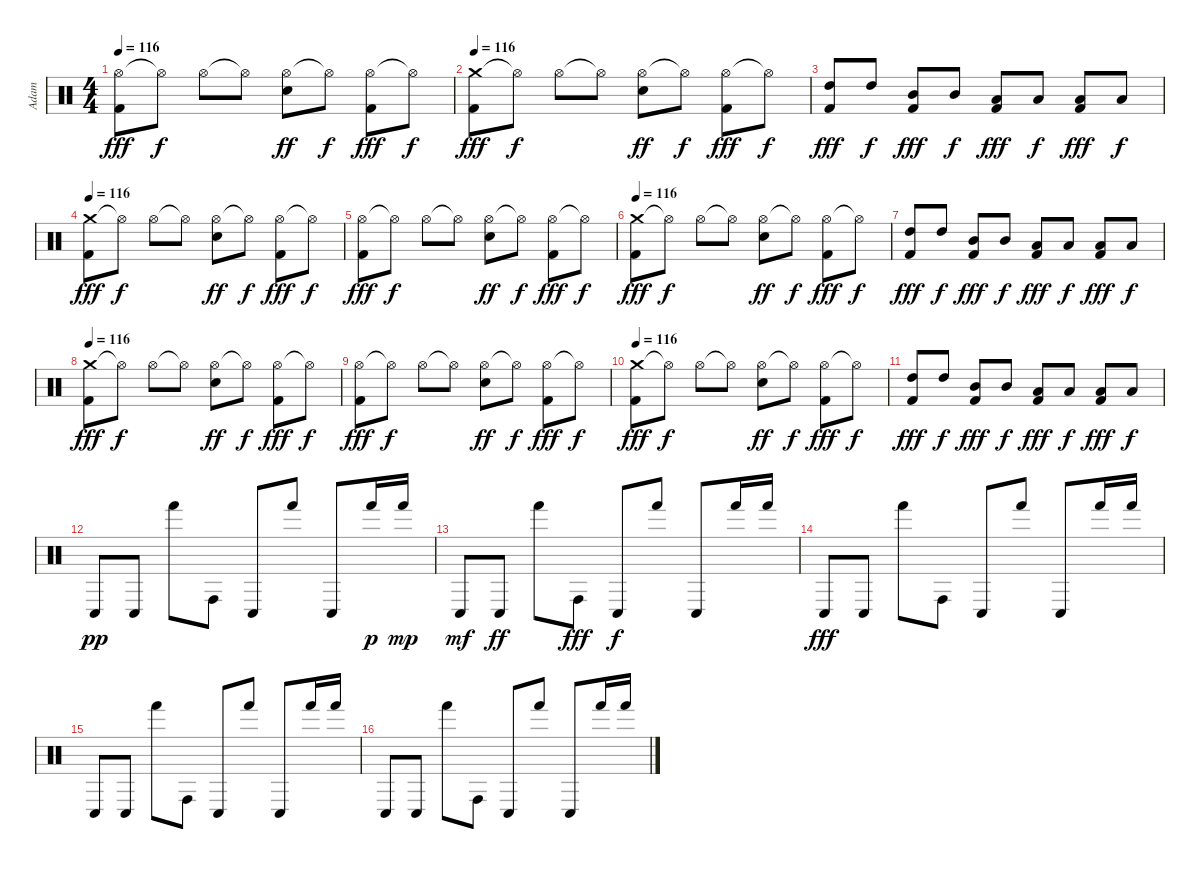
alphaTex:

\track ("Adam" "Adam") {instrument percussion}
\staff {score}
\articulation defaults
\ts (4 4)
\tempo 116
\clef neutral
\ks c
("Hi-Hat (open)" "Kick (hit) 2").8{dy fff} "Hi-Hat (open)"{t}.8{dy f} "Hi-Hat (open)".8 "Hi-Hat (open)"{t}.8 ("Hi-Hat (open)" "Electric Snare (hit)").8{dy ff} "Hi-Hat (open)"{t}.8{dy f} ("Hi-Hat (open)" "Kick (hit) 2").8{dy fff} "Hi-Hat (open)"{t}.8{dy f} |
\tempo 116
("Crash medium (hit)" "Kick (hit) 2").8{dy fff} "Hi-Hat (open)"{t}.8{dy f} "Hi-Hat (open)".8 "Hi-Hat (open)"{t}.8 ("Hi-Hat (open)" "Electric Snare (hit)").8{dy ff} "Hi-Hat (open)"{t}.8{dy f} ("Hi-Hat (open)" "Kick (hit) 2").8{dy fff} "Hi-Hat (open)"{t}.8{dy f} |
("High Tom (hit)" "Kick (hit) 2").8{dy fff} "High Tom (hit)".8{dy f} ("Mid Tom (hit)" "Kick (hit) 2").8{dy fff} "Mid Tom (hit)".8{dy f} ("Low Tom (hit)" "Kick (hit) 2").8{dy fff} "Low Tom (hit)".8{dy f} ("Low Floor Tom (hit)" "Kick (hit) 2").8{dy fff} "Low Floor Tom (hit)".8{dy f} |
\tempo 116
("Crash medium (hit)" "Kick (hit) 2").8{dy fff} "Hi-Hat (open)"{t}.8{dy f} "Hi-Hat (open)".8 "Hi-Hat (open)"{t}.8 ("Hi-Hat (open)" "Electric Snare (hit)").8{dy ff} "Hi-Hat (open)"{t}.8{dy f} ("Hi-Hat (open)" "Kick (hit) 2").8{dy fff} "Hi-Hat (open)"{t}.8{dy f} |
("Hi-Hat (open)" "Kick (hit) 2").8{dy fff} "Hi-Hat (open)"{t}.8{dy f} "Hi-Hat (open)".8 "Hi-Hat (open)"{t}.8 ("Hi-Hat (open)" "Electric Snare (hit)").8{dy ff} "Hi-Hat (open)"{t}.8{dy f} ("Hi-Hat (open)" "Kick (hit) 2").8{dy fff} "Hi-Hat (open)"{t}.8{dy f} |
\tempo 116
("Crash medium (hit)" "Kick (hit) 2").8{dy fff} "Hi-Hat (open)"{t}.8{dy f} "Hi-Hat (open)".8 "Hi-Hat (open)"{t}.8 ("Hi-Hat (open)" "Electric Snare (hit)").8{dy ff} "Hi-Hat (open)"{t}.8{dy f} ("Hi-Hat (open)" "Kick (hit) 2").8{dy fff} "Hi-Hat (open)"{t}.8{dy f} |
("High Tom (hit)" "Kick (hit) 2").8{dy fff} "High Tom (hit)".8{dy f} ("Mid Tom (hit)" "Kick (hit) 2").8{dy fff} "Mid Tom (hit)".8{dy f} ("Low Tom (hit)" "Kick (hit) 2").8{dy fff} "Low Tom (hit)".8{dy f} ("Low Floor Tom (hit)" "Kick (hit) 2").8{dy fff} "Low Floor Tom (hit)".8{dy f} |
\tempo 116
("Crash medium (hit)" "Kick (hit) 2").8{dy fff} "Hi-Hat (open)"{t}.8{dy f} "Hi-Hat (open)".8 "Hi-Hat (open)"{t}.8 ("Hi-Hat (open)" "Electric Snare (hit)").8{dy ff} "Hi-Hat (open)"{t}.8{dy f} ("Hi-Hat (open)" "Kick (hit) 2").8{dy fff} "Hi-Hat (open)"{t}.8{dy f} |
("Hi-Hat (open)" "Kick (hit) 2").8{dy fff} "Hi-Hat (open)"{t}.8{dy f} "Hi-Hat (open)".8 "Hi-Hat (open)"{t}.8 ("Hi-Hat (open)" "Electric Snare (hit)").8{dy ff} "Hi-Hat (open)"{t}.8{dy f} ("Hi-Hat (open)" "Kick (hit) 2").8{dy fff} "Hi-Hat (open)"{t}.8{dy f} |
\tempo 116
("Crash medium (hit)" "Kick (hit) 2").8{dy fff} "Hi-Hat (open)"{t}.8{dy f} "Hi-Hat (open)".8 "Hi-Hat (open)"{t}.8 ("Hi-Hat (open)" "Electric Snare (hit)").8{dy ff} "Hi-Hat (open)"{t}.8{dy f} ("Hi-Hat (open)" "Kick (hit) 2").8{dy fff} "Hi-Hat (open)"{t}.8{dy f} |
("High Tom (hit)" "Kick (hit) 2").8{dy fff} "High Tom (hit)".8{dy f} ("Mid Tom (hit)" "Kick (hit) 2").8{dy fff} "Mid Tom (hit)".8{dy f} ("Low Tom (hit)" "Kick (hit) 2").8{dy fff} "Low Tom (hit)".8{dy f} ("Low Floor Tom (hit)" "Kick (hit) 2").8{dy fff} "Low Floor Tom (hit)".8{dy f} |
"Conga low (hit)".8{dy pp} "Conga low (hit)".8 "Hand (hit)".8 "Conga high (hit)".8 "Conga low (hit)".8 "Hand (hit)".8 "Conga low (hit)".8 "Hand (hit)".16{dy p} "Hand (hit)".16{dy mp} |
"Conga low (hit)".8{dy mf} "Conga low (hit)".8{dy ff} "Hand (hit)".8 "Conga high (hit)".8{dy fff} "Conga low (hit)".8{dy f} "Hand (hit)".8 "Conga low (hit)".8 "Hand (hit)".16 "Hand (hit)".16 |
"Conga low (hit)".8{dy fff} "Conga low (hit)".8 "Hand (hit)".8 "Conga high (hit)".8 "Conga low (hit)".8 "Hand (hit)".8 "Conga low (hit)".8 "Hand (hit)".16 "Hand (hit)".16 |
"Conga low (hit)".8 "Conga low (hit)".8 "Hand (hit)".8 "Conga high (hit)".8 "Conga low (hit)".8 "Hand (hit)".8 "Conga low (hit)".8 "Hand (hit)".16 "Hand (hit)".16 |
"Conga low (hit)".8 "Conga low (hit)".8 "Hand (hit)".8 "Conga high (hit)".8 "Conga low (hit)".8 "Hand (hit)".8 "Conga low (hit)".8 "Hand (hit)".16 "Hand (hit)".16
